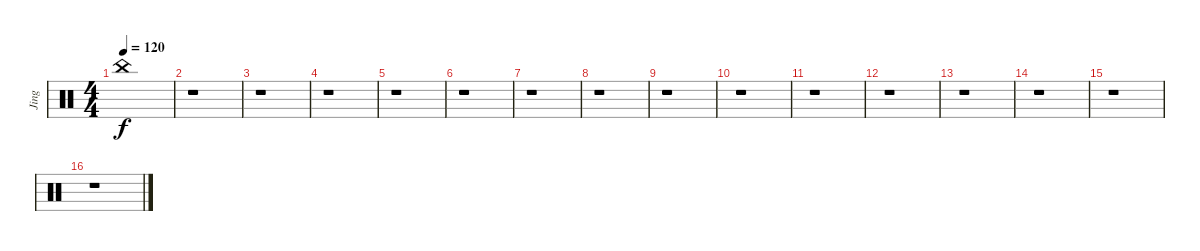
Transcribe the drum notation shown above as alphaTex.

\track ("Jing" "Jing") {instrument percussion}
\staff {score}
\articulation defaults
\ts (4 4)
\tempo 120
\clef neutral
\ks c "China (hit)".1{dy f}
|
r.1 |
r.1 |
r.1 |
r.1 |
r.1 |
r.1 |
r.1 |
r.1 |
r.1 |
r.1 |
r.1 |
r.1 |
r.1 |
r.1 |
r.1
